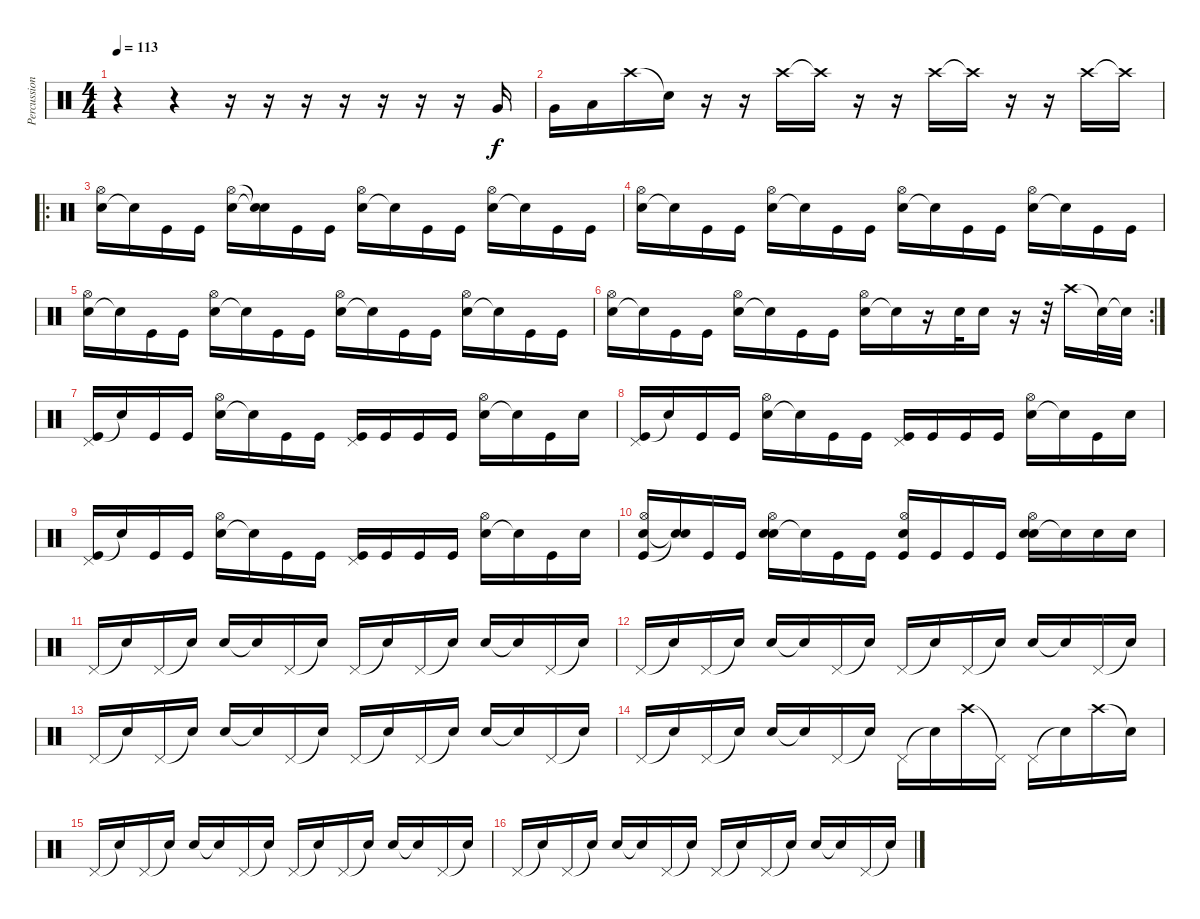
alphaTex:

\track ("Percussions" "Percussion") {instrument percussion}
\staff {score}
\articulation defaults
\ts (4 4)
\tempo 113
\clef neutral
\ks c
r.4{dy f} r.4 r.16 r.16 r.16 r.16 r.16 r.16 r.16 "Very Low Tom (hit)".16 |
"Very Low Tom (hit)".16 "Low Floor Tom (hit)".16 "Crash high (hit)".16 "Snare (hit)"{t}.16 r.16 r.16 "Crash high (hit)".16 "Crash high (hit)"{t}.16 r.16 r.16 "Crash high (hit)".16 "Crash high (hit)"{t}.16 r.16 r.16 "Crash high (hit)".16 "Crash high (hit)"{t}.16 |
\ro
("Electric Snare (hit)" "Hi-Hat (open)").16 "Snare (hit)"{t}.16 "Kick (hit)".16 "Kick (hit)".16 ("Electric Snare (hit)" "Hi-Hat (open)").16 ("Snare (hit)"{t} "Snare (hit)"{t}).16 "Kick (hit)".16 "Kick (hit)".16 ("Electric Snare (hit)" "Hi-Hat (open)").16 "Snare (hit)"{t}.16 "Kick (hit)".16 "Kick (hit)".16 ("Electric Snare (hit)" "Hi-Hat (open)").16 "Snare (hit)"{t}.16 "Kick (hit)".16 "Kick (hit)".16 |
("Electric Snare (hit)" "Hi-Hat (open)").16 "Snare (hit)"{t}.16 "Kick (hit)".16 "Kick (hit)".16 ("Electric Snare (hit)" "Hi-Hat (open)").16 "Snare (hit)"{t}.16 "Kick (hit)".16 "Kick (hit)".16 ("Electric Snare (hit)" "Hi-Hat (open)").16 "Snare (hit)"{t}.16 "Kick (hit)".16 "Kick (hit)".16 ("Electric Snare (hit)" "Hi-Hat (open)").16 "Snare (hit)"{t}.16 "Kick (hit)".16 "Kick (hit)".16 |
("Electric Snare (hit)" "Hi-Hat (open)").16 "Snare (hit)"{t}.16 "Kick (hit)".16 "Kick (hit)".16 ("Electric Snare (hit)" "Hi-Hat (open)").16 "Snare (hit)"{t}.16 "Kick (hit)".16 "Kick (hit)".16 ("Electric Snare (hit)" "Hi-Hat (open)").16 "Snare (hit)"{t}.16 "Kick (hit)".16 "Kick (hit)".16 ("Electric Snare (hit)" "Hi-Hat (open)").16 "Snare (hit)"{t}.16 "Kick (hit)".16 "Kick (hit)".16 |
\rc 2
("Electric Snare (hit)" "Hi-Hat (open)").16 "Snare (hit)"{t}.16 "Kick (hit)".16 "Kick (hit)".16 ("Electric Snare (hit)" "Hi-Hat (open)").16 "Snare (hit)"{t}.16 "Kick (hit)".16 "Kick (hit)".16 ("Electric Snare (hit)" "Hi-Hat (open)").16 "Snare (hit)"{t}.16 r.16 "Snare (hit) 2".32 "Snare (hit) 2".16 r.16 r.32 "Crash high (hit)".16 "Snare (hit)"{t}.32 "Snare (hit)"{t}.32 |
("Kick (hit)" "Pedal Hi-Hat (hit)").16 "Snare (hit)"{t}.16 "Kick (hit)".16 "Kick (hit)".16 ("Snare (hit) 2" "Hi-Hat (open)").16 "Snare (hit)"{t}.16 "Kick (hit)".16 "Kick (hit)".16 ("Kick (hit)" "Pedal Hi-Hat (hit)").16 "Kick (hit)".16 "Kick (hit)".16 "Kick (hit)".16 ("Snare (hit) 2" "Hi-Hat (open)").16 "Snare (hit)"{t}.16 "Kick (hit)".16 "Snare (hit) 2".16 |
("Kick (hit)" "Pedal Hi-Hat (hit)").16 "Snare (hit)"{t}.16 "Kick (hit)".16 "Kick (hit)".16 ("Snare (hit) 2" "Hi-Hat (open)").16 "Snare (hit)"{t}.16 "Kick (hit)".16 "Kick (hit)".16 ("Kick (hit)" "Pedal Hi-Hat (hit)").16 "Kick (hit)".16 "Kick (hit)".16 "Kick (hit)".16 ("Snare (hit) 2" "Hi-Hat (open)").16 "Snare (hit)"{t}.16 "Kick (hit)".16 "Snare (hit) 2".16 |
("Kick (hit)" "Pedal Hi-Hat (hit)").16 "Snare (hit)"{t}.16 "Kick (hit)".16 "Kick (hit)".16 ("Snare (hit) 2" "Hi-Hat (open)").16 "Snare (hit)"{t}.16 "Kick (hit)".16 "Kick (hit)".16 ("Kick (hit)" "Pedal Hi-Hat (hit)").16 "Kick (hit)".16 "Kick (hit)".16 "Kick (hit)".16 ("Snare (hit) 2" "Hi-Hat (open)").16 "Snare (hit)"{t}.16 "Kick (hit)".16 "Snare (hit) 2".16 |
("Kick (hit)" "Electric Snare (hit)" "Hi-Hat (open)").16 ("Snare (hit)"{t} "Snare (hit)"{t}).16 "Kick (hit)".16 "Kick (hit)".16 ("Snare (hit) 2" "Electric Snare (hit)" "Hi-Hat (open)").16 "Snare (hit)"{t}.16 "Kick (hit)".16 "Kick (hit)".16 ("Kick (hit)" "Electric Snare (hit)" "Hi-Hat (open)").16 "Kick (hit)".16 "Kick (hit)".16 "Kick (hit)".16 ("Snare (hit) 2" "Electric Snare (hit)" "Hi-Hat (open)").16 "Snare (hit)"{t}.16 "Electric Snare (hit)".16 "Electric Snare (hit)".16 |
"Pedal Hi-Hat (hit)".16 "Snare (hit)"{t}.16 "Pedal Hi-Hat (hit)".16 "Snare (hit)"{t}.16 "Snare (hit) 2".16 "Snare (hit)"{t}.16 "Pedal Hi-Hat (hit)".16 "Snare (hit)"{t}.16 "Pedal Hi-Hat (hit)".16 "Snare (hit)"{t}.16 "Pedal Hi-Hat (hit)".16 "Snare (hit)"{t}.16 "Snare (hit) 2".16 "Snare (hit)"{t}.16 "Pedal Hi-Hat (hit)".16 "Snare (hit)"{t}.16 |
"Pedal Hi-Hat (hit)".16 "Snare (hit)"{t}.16 "Pedal Hi-Hat (hit)".16 "Snare (hit)"{t}.16 "Snare (hit) 2".16 "Snare (hit)"{t}.16 "Pedal Hi-Hat (hit)".16 "Snare (hit)"{t}.16 "Pedal Hi-Hat (hit)".16 "Snare (hit)"{t}.16 "Pedal Hi-Hat (hit)".16 "Snare (hit)"{t}.16 "Snare (hit) 2".16 "Snare (hit)"{t}.16 "Pedal Hi-Hat (hit)".16 "Snare (hit)"{t}.16 |
"Pedal Hi-Hat (hit)".16 "Snare (hit)"{t}.16 "Pedal Hi-Hat (hit)".16 "Snare (hit)"{t}.16 "Snare (hit) 2".16 "Snare (hit)"{t}.16 "Pedal Hi-Hat (hit)".16 "Snare (hit)"{t}.16 "Pedal Hi-Hat (hit)".16 "Snare (hit)"{t}.16 "Pedal Hi-Hat (hit)".16 "Snare (hit)"{t}.16 "Snare (hit) 2".16 "Snare (hit)"{t}.16 "Pedal Hi-Hat (hit)".16 "Snare (hit)"{t}.16 |
"Pedal Hi-Hat (hit)".16 "Snare (hit)"{t}.16 "Pedal Hi-Hat (hit)".16 "Snare (hit)"{t}.16 "Snare (hit) 2".16 "Snare (hit)"{t}.16 "Pedal Hi-Hat (hit)".16 "Snare (hit)"{t}.16 "Pedal Hi-Hat (hit)".16 "Snare (hit)"{t}.16 "Crash high (hit)".16 "Pedal Hi-Hat (hit)"{t}.16 "Pedal Hi-Hat (hit)".16 "Snare (hit)"{t}.16 "Crash high (hit)".16 "Snare (hit)"{t}.16 |
"Pedal Hi-Hat (hit)".16 "Snare (hit)"{t}.16 "Pedal Hi-Hat (hit)".16 "Snare (hit)"{t}.16 "Snare (hit) 2".16 "Snare (hit)"{t}.16 "Pedal Hi-Hat (hit)".16 "Snare (hit)"{t}.16 "Pedal Hi-Hat (hit)".16 "Snare (hit)"{t}.16 "Pedal Hi-Hat (hit)".16 "Snare (hit)"{t}.16 "Snare (hit) 2".16 "Snare (hit)"{t}.16 "Pedal Hi-Hat (hit)".16 "Snare (hit)"{t}.16 |
"Pedal Hi-Hat (hit)".16 "Snare (hit)"{t}.16 "Pedal Hi-Hat (hit)".16 "Snare (hit)"{t}.16 "Snare (hit) 2".16 "Snare (hit)"{t}.16 "Pedal Hi-Hat (hit)".16 "Snare (hit)"{t}.16 "Pedal Hi-Hat (hit)".16 "Snare (hit)"{t}.16 "Pedal Hi-Hat (hit)".16 "Snare (hit)"{t}.16 "Snare (hit) 2".16 "Snare (hit)"{t}.16 "Pedal Hi-Hat (hit)".16 "Snare (hit)"{t}.16
